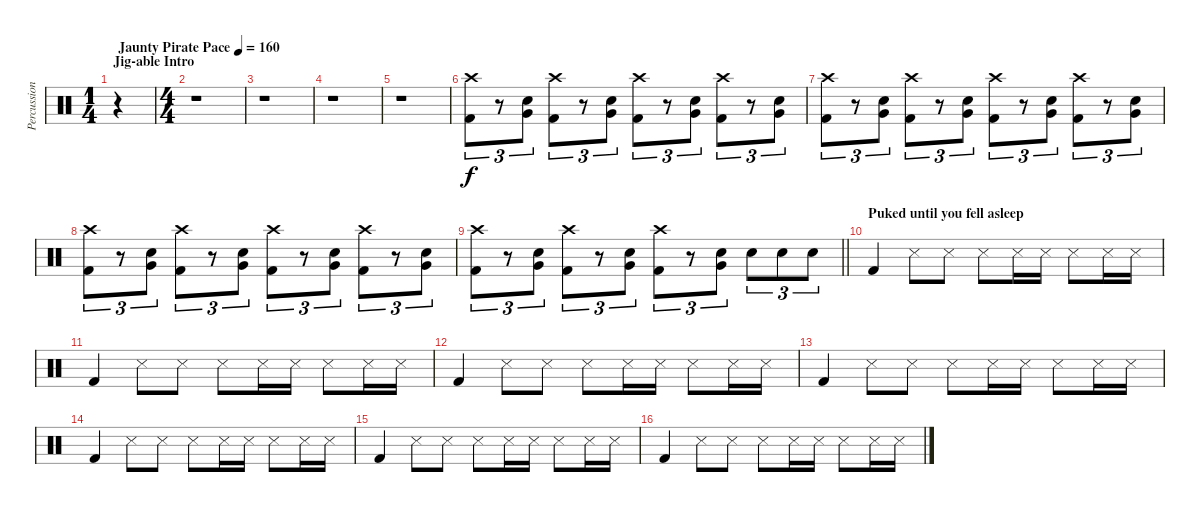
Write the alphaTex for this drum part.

\track ("Percussion" "Percussion") {instrument percussion}
\staff {score}
\articulation defaults
\ts (1 4)
\section ("" "Jig-able Intro")
\tempo (160 "Jaunty Pirate Pace")
\clef neutral
\ks c
r.4{dy f} |
\ts (4 4)
r.1 |
r.1 |
r.1 |
r.1 |
("Crash high (hit)" "Kick (hit) 2").8{tu (3 2)} r.8{tu (3 2)} ("Snare (hit) 2" "Very Low Tom (hit)").8{tu (3 2)} ("Crash high (hit)" "Kick (hit) 2").8{tu (3 2)} r.8{tu (3 2)} ("Snare (hit) 2" "Very Low Tom (hit)").8{tu (3 2)} ("Crash high (hit)" "Kick (hit) 2").8{tu (3 2)} r.8{tu (3 2)} ("Snare (hit) 2" "Very Low Tom (hit)").8{tu (3 2)} ("Crash high (hit)" "Kick (hit) 2").8{tu (3 2)} r.8{tu (3 2)} ("Snare (hit) 2" "Very Low Tom (hit)").8{tu (3 2)} |
("Crash high (hit)" "Kick (hit) 2").8{tu (3 2)} r.8{tu (3 2)} ("Snare (hit) 2" "Very Low Tom (hit)").8{tu (3 2)} ("Crash high (hit)" "Kick (hit) 2").8{tu (3 2)} r.8{tu (3 2)} ("Snare (hit) 2" "Very Low Tom (hit)").8{tu (3 2)} ("Crash high (hit)" "Kick (hit) 2").8{tu (3 2)} r.8{tu (3 2)} ("Snare (hit) 2" "Very Low Tom (hit)").8{tu (3 2)} ("Crash high (hit)" "Kick (hit) 2").8{tu (3 2)} r.8{tu (3 2)} ("Snare (hit) 2" "Very Low Tom (hit)").8{tu (3 2)} |
("Crash high (hit)" "Kick (hit) 2").8{tu (3 2)} r.8{tu (3 2)} ("Snare (hit) 2" "Very Low Tom (hit)").8{tu (3 2)} ("Crash high (hit)" "Kick (hit) 2").8{tu (3 2)} r.8{tu (3 2)} ("Snare (hit) 2" "Very Low Tom (hit)").8{tu (3 2)} ("Crash high (hit)" "Kick (hit) 2").8{tu (3 2)} r.8{tu (3 2)} ("Snare (hit) 2" "Very Low Tom (hit)").8{tu (3 2)} ("Crash high (hit)" "Kick (hit) 2").8{tu (3 2)} r.8{tu (3 2)} ("Snare (hit) 2" "Very Low Tom (hit)").8{tu (3 2)} |
\barLineRight lightlight
("Crash high (hit)" "Kick (hit) 2").8{tu (3 2)} r.8{tu (3 2)} ("Snare (hit) 2" "Very Low Tom (hit)").8{tu (3 2)} ("Crash high (hit)" "Kick (hit) 2").8{tu (3 2)} r.8{tu (3 2)} ("Snare (hit) 2" "Very Low Tom (hit)").8{tu (3 2)} ("Crash high (hit)" "Kick (hit) 2").8{tu (3 2)} r.8{tu (3 2)} ("Snare (hit) 2" "Very Low Tom (hit)").8{tu (3 2)} "Snare (hit) 2".8{tu (3 2)} "Snare (hit) 2".8{tu (3 2)} "Snare (hit) 2".8{tu (3 2)} |
\section ("" "Puked until you fell asleep")
"Kick (hit) 2".4 "Snare (side stick) 3".8 "Snare (side stick) 3".8 "Snare (side stick) 3".8 "Snare (side stick) 3".16 "Snare (side stick) 3".16 "Snare (side stick) 3".8 "Snare (side stick) 3".16 "Snare (side stick) 3".16 |
"Kick (hit) 2".4 "Snare (side stick) 3".8 "Snare (side stick) 3".8 "Snare (side stick) 3".8 "Snare (side stick) 3".16 "Snare (side stick) 3".16 "Snare (side stick) 3".8 "Snare (side stick) 3".16 "Snare (side stick) 3".16 |
"Kick (hit) 2".4 "Snare (side stick) 3".8 "Snare (side stick) 3".8 "Snare (side stick) 3".8 "Snare (side stick) 3".16 "Snare (side stick) 3".16 "Snare (side stick) 3".8 "Snare (side stick) 3".16 "Snare (side stick) 3".16 |
"Kick (hit) 2".4 "Snare (side stick) 3".8 "Snare (side stick) 3".8 "Snare (side stick) 3".8 "Snare (side stick) 3".16 "Snare (side stick) 3".16 "Snare (side stick) 3".8 "Snare (side stick) 3".16 "Snare (side stick) 3".16 |
"Kick (hit) 2".4 "Snare (side stick) 3".8 "Snare (side stick) 3".8 "Snare (side stick) 3".8 "Snare (side stick) 3".16 "Snare (side stick) 3".16 "Snare (side stick) 3".8 "Snare (side stick) 3".16 "Snare (side stick) 3".16 |
"Kick (hit) 2".4 "Snare (side stick) 3".8 "Snare (side stick) 3".8 "Snare (side stick) 3".8 "Snare (side stick) 3".16 "Snare (side stick) 3".16 "Snare (side stick) 3".8 "Snare (side stick) 3".16 "Snare (side stick) 3".16 |
"Kick (hit) 2".4 "Snare (side stick) 3".8 "Snare (side stick) 3".8 "Snare (side stick) 3".8 "Snare (side stick) 3".16 "Snare (side stick) 3".16 "Snare (side stick) 3".8 "Snare (side stick) 3".16 "Snare (side stick) 3".16
